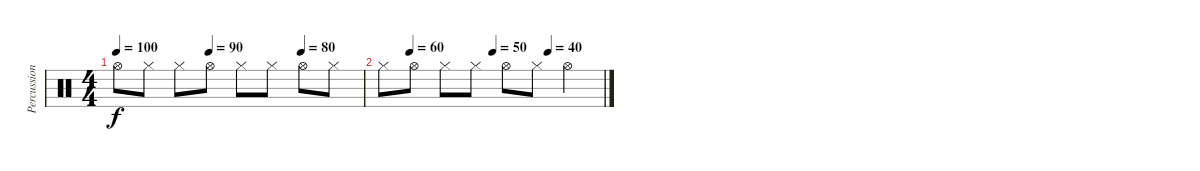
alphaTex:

\track ("Percussion" "Percussion") {instrument percussion}
\staff {score}
\articulation defaults
\ts (4 4)
\tempo 100
\tempo (90 0.375)
\tempo (80 0.75)
\clef neutral
\ks c "Hi-Hat (open)".8{dy f volume 10} "Hi-Hat (closed)".8 "Hi-Hat (closed)".8 "Hi-Hat (open)".8 "Hi-Hat (closed)".8 "Hi-Hat (closed)".8 "Hi-Hat (open)".8 "Hi-Hat (closed)".8
|
\tempo (60 0.125)
\tempo (50 0.5)
\tempo (40 0.75)
"Hi-Hat (closed)".8 "Hi-Hat (open)".8 "Hi-Hat (closed)".8 "Hi-Hat (closed)".8 "Hi-Hat (open)".8 "Hi-Hat (closed)".8 "Hi-Hat (open)".4
